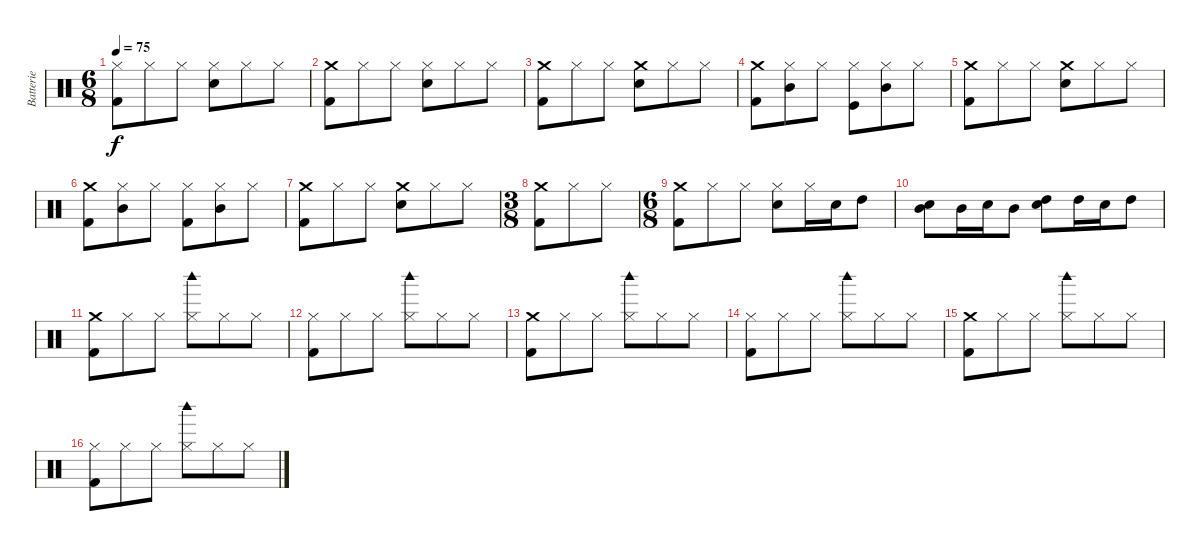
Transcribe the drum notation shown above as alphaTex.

\track ("Batterie" "Batterie") {instrument percussion}
\staff {score}
\articulation defaults
\ts (6 8)
\tempo 75
\clef neutral
\ks c
("Kick (hit) 2" "Hi-Hat (closed)").8{dy f} "Hi-Hat (closed)".8 "Hi-Hat (closed)".8 ("Snare (hit) 2" "Hi-Hat (closed)").8 "Hi-Hat (closed)".8 "Hi-Hat (closed)".8 |
("Kick (hit) 2" "Crash medium (hit)").8 "Hi-Hat (closed)".8 "Hi-Hat (closed)".8 ("Snare (hit) 2" "Hi-Hat (closed)").8 "Hi-Hat (closed)".8 "Hi-Hat (closed)".8 |
("Kick (hit) 2" "Crash medium (hit)").8 "Hi-Hat (closed)".8 "Hi-Hat (closed)".8 ("Snare (hit) 2" "Crash medium (hit)").8 "Hi-Hat (closed)".8 "Hi-Hat (closed)".8 |
("Kick (hit) 2" "Crash medium (hit)").8 ("Mid Tom (hit)" "Hi-Hat (closed)").8 "Hi-Hat (closed)".8 ("Kick (hit)" "Hi-Hat (closed)").8 ("Mid Tom (hit)" "Hi-Hat (closed)").8 "Hi-Hat (closed)".8 |
("Kick (hit) 2" "Crash medium (hit)").8 "Hi-Hat (closed)".8 "Hi-Hat (closed)".8 ("Snare (hit) 2" "Crash medium (hit)").8 "Hi-Hat (closed)".8 "Hi-Hat (closed)".8 |
("Kick (hit) 2" "Crash medium (hit)").8 ("Mid Tom (hit)" "Hi-Hat (closed)").8 "Hi-Hat (closed)".8 ("Kick (hit) 2" "Hi-Hat (closed)").8 ("Mid Tom (hit)" "Hi-Hat (closed)").8 "Hi-Hat (closed)".8 |
("Kick (hit) 2" "Crash medium (hit)").8 "Hi-Hat (closed)".8 "Hi-Hat (closed)".8 ("Snare (hit) 2" "Crash medium (hit)").8 "Hi-Hat (closed)".8 "Hi-Hat (closed)".8 |
\ts (3 8)
("Kick (hit) 2" "Crash medium (hit)").8 "Hi-Hat (closed)".8 "Hi-Hat (closed)".8 |
\ts (6 8)
("Kick (hit) 2" "Crash medium (hit)").8 "Hi-Hat (closed)".8 "Hi-Hat (closed)".8 ("Snare (hit) 2" "Hi-Hat (closed)").8 "Hi-Hat (closed)".16 "Snare (hit) 2".16 "High Tom (hit)".8 |
("Mid Tom (hit)" "Snare (hit) 2").8 "Mid Tom (hit)".16 "Snare (hit) 2".16 "Mid Tom (hit)".8 ("High Tom (hit)" "Snare (hit) 2").8 "High Tom (hit)".16 "Snare (hit) 2".16 "High Tom (hit)".8 |
("Kick (hit) 2" "Crash medium (hit)").8 "Hi-Hat (closed)".8 "Hi-Hat (closed)".8 ("Woodblock high (hit)" "Hi-Hat (closed)").8 "Hi-Hat (closed)".8 "Hi-Hat (closed)".8 |
("Kick (hit) 2" "Hi-Hat (closed)").8 "Hi-Hat (closed)".8 "Hi-Hat (closed)".8 ("Woodblock high (hit)" "Hi-Hat (closed)").8 "Hi-Hat (closed)".8 "Hi-Hat (closed)".8 |
("Kick (hit) 2" "Crash medium (hit)").8 "Hi-Hat (closed)".8 "Hi-Hat (closed)".8 ("Woodblock high (hit)" "Hi-Hat (closed)").8 "Hi-Hat (closed)".8 "Hi-Hat (closed)".8 |
("Kick (hit) 2" "Hi-Hat (closed)").8 "Hi-Hat (closed)".8 "Hi-Hat (closed)".8 ("Woodblock high (hit)" "Hi-Hat (closed)").8 "Hi-Hat (closed)".8 "Hi-Hat (closed)".8 |
("Kick (hit) 2" "Crash medium (hit)").8 "Hi-Hat (closed)".8 "Hi-Hat (closed)".8 ("Woodblock high (hit)" "Hi-Hat (closed)").8 "Hi-Hat (closed)".8 "Hi-Hat (closed)".8 |
("Kick (hit) 2" "Hi-Hat (closed)").8 "Hi-Hat (closed)".8 "Hi-Hat (closed)".8 ("Woodblock high (hit)" "Hi-Hat (closed)").8 "Hi-Hat (closed)".8 "Hi-Hat (closed)".8
